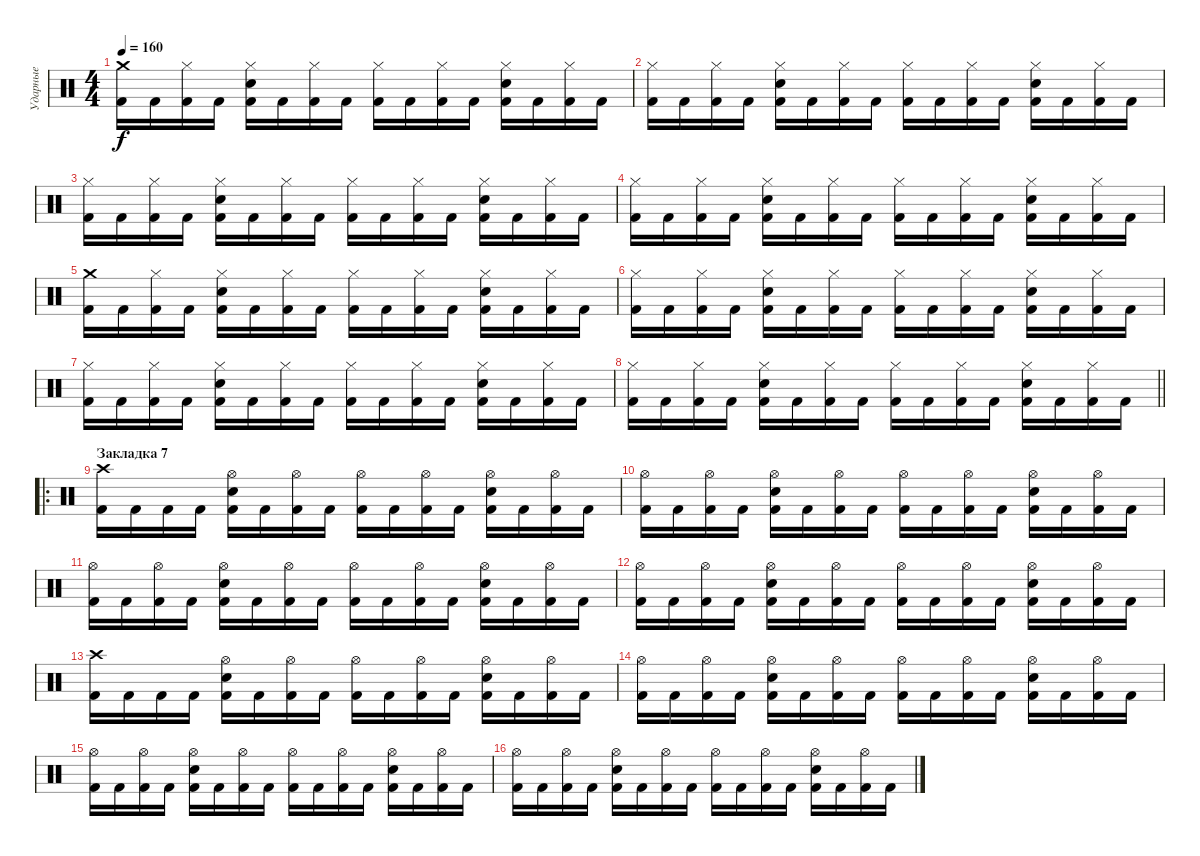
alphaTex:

\track ("Ударные" "Ударные") {instrument percussion}
\staff {score}
\articulation defaults
\ts (4 4)
\tempo 160
\clef neutral
\ks c
("Crash medium (hit)" "Kick (hit) 2").16{dy f} "Kick (hit) 2".16 ("Hi-Hat (closed)" "Kick (hit) 2").16 "Kick (hit) 2".16 ("Electric Snare (hit)" "Hi-Hat (closed)" "Kick (hit) 2").16 "Kick (hit) 2".16 ("Hi-Hat (closed)" "Kick (hit) 2").16 "Kick (hit) 2".16 ("Hi-Hat (closed)" "Kick (hit) 2").16 "Kick (hit) 2".16 ("Hi-Hat (closed)" "Kick (hit) 2").16 "Kick (hit) 2".16 ("Electric Snare (hit)" "Hi-Hat (closed)" "Kick (hit) 2").16 "Kick (hit) 2".16 ("Hi-Hat (closed)" "Kick (hit) 2").16 "Kick (hit) 2".16 |
("Hi-Hat (closed)" "Kick (hit) 2").16 "Kick (hit) 2".16 ("Hi-Hat (closed)" "Kick (hit) 2").16 "Kick (hit) 2".16 ("Electric Snare (hit)" "Hi-Hat (closed)" "Kick (hit) 2").16 "Kick (hit) 2".16 ("Hi-Hat (closed)" "Kick (hit) 2").16 "Kick (hit) 2".16 ("Hi-Hat (closed)" "Kick (hit) 2").16 "Kick (hit) 2".16 ("Hi-Hat (closed)" "Kick (hit) 2").16 "Kick (hit) 2".16 ("Electric Snare (hit)" "Hi-Hat (closed)" "Kick (hit) 2").16 "Kick (hit) 2".16 ("Hi-Hat (closed)" "Kick (hit) 2").16 "Kick (hit) 2".16 |
("Hi-Hat (closed)" "Kick (hit) 2").16 "Kick (hit) 2".16 ("Hi-Hat (closed)" "Kick (hit) 2").16 "Kick (hit) 2".16 ("Electric Snare (hit)" "Hi-Hat (closed)" "Kick (hit) 2").16 "Kick (hit) 2".16 ("Hi-Hat (closed)" "Kick (hit) 2").16 "Kick (hit) 2".16 ("Hi-Hat (closed)" "Kick (hit) 2").16 "Kick (hit) 2".16 ("Hi-Hat (closed)" "Kick (hit) 2").16 "Kick (hit) 2".16 ("Electric Snare (hit)" "Hi-Hat (closed)" "Kick (hit) 2").16 "Kick (hit) 2".16 ("Hi-Hat (closed)" "Kick (hit) 2").16 "Kick (hit) 2".16 |
("Hi-Hat (closed)" "Kick (hit) 2").16 "Kick (hit) 2".16 ("Hi-Hat (closed)" "Kick (hit) 2").16 "Kick (hit) 2".16 ("Electric Snare (hit)" "Hi-Hat (closed)" "Kick (hit) 2").16 "Kick (hit) 2".16 ("Hi-Hat (closed)" "Kick (hit) 2").16 "Kick (hit) 2".16 ("Hi-Hat (closed)" "Kick (hit) 2").16 "Kick (hit) 2".16 ("Hi-Hat (closed)" "Kick (hit) 2").16 "Kick (hit) 2".16 ("Electric Snare (hit)" "Hi-Hat (closed)" "Kick (hit) 2").16 "Kick (hit) 2".16 ("Hi-Hat (closed)" "Kick (hit) 2").16 "Kick (hit) 2".16 |
("Crash medium (hit)" "Kick (hit) 2").16 "Kick (hit) 2".16 ("Hi-Hat (closed)" "Kick (hit) 2").16 "Kick (hit) 2".16 ("Electric Snare (hit)" "Hi-Hat (closed)" "Kick (hit) 2").16 "Kick (hit) 2".16 ("Hi-Hat (closed)" "Kick (hit) 2").16 "Kick (hit) 2".16 ("Hi-Hat (closed)" "Kick (hit) 2").16 "Kick (hit) 2".16 ("Hi-Hat (closed)" "Kick (hit) 2").16 "Kick (hit) 2".16 ("Electric Snare (hit)" "Hi-Hat (closed)" "Kick (hit) 2").16 "Kick (hit) 2".16 ("Hi-Hat (closed)" "Kick (hit) 2").16 "Kick (hit) 2".16 |
("Hi-Hat (closed)" "Kick (hit) 2").16 "Kick (hit) 2".16 ("Hi-Hat (closed)" "Kick (hit) 2").16 "Kick (hit) 2".16 ("Electric Snare (hit)" "Hi-Hat (closed)" "Kick (hit) 2").16 "Kick (hit) 2".16 ("Hi-Hat (closed)" "Kick (hit) 2").16 "Kick (hit) 2".16 ("Hi-Hat (closed)" "Kick (hit) 2").16 "Kick (hit) 2".16 ("Hi-Hat (closed)" "Kick (hit) 2").16 "Kick (hit) 2".16 ("Electric Snare (hit)" "Hi-Hat (closed)" "Kick (hit) 2").16 "Kick (hit) 2".16 ("Hi-Hat (closed)" "Kick (hit) 2").16 "Kick (hit) 2".16 |
("Hi-Hat (closed)" "Kick (hit) 2").16 "Kick (hit) 2".16 ("Hi-Hat (closed)" "Kick (hit) 2").16 "Kick (hit) 2".16 ("Electric Snare (hit)" "Hi-Hat (closed)" "Kick (hit) 2").16 "Kick (hit) 2".16 ("Hi-Hat (closed)" "Kick (hit) 2").16 "Kick (hit) 2".16 ("Hi-Hat (closed)" "Kick (hit) 2").16 "Kick (hit) 2".16 ("Hi-Hat (closed)" "Kick (hit) 2").16 "Kick (hit) 2".16 ("Electric Snare (hit)" "Hi-Hat (closed)" "Kick (hit) 2").16 "Kick (hit) 2".16 ("Hi-Hat (closed)" "Kick (hit) 2").16 "Kick (hit) 2".16 |
\barLineRight lightlight
("Hi-Hat (closed)" "Kick (hit) 2").16 "Kick (hit) 2".16 ("Hi-Hat (closed)" "Kick (hit) 2").16 "Kick (hit) 2".16 ("Electric Snare (hit)" "Hi-Hat (closed)" "Kick (hit) 2").16 "Kick (hit) 2".16 ("Hi-Hat (closed)" "Kick (hit) 2").16 "Kick (hit) 2".16 ("Hi-Hat (closed)" "Kick (hit) 2").16 "Kick (hit) 2".16 ("Hi-Hat (closed)" "Kick (hit) 2").16 "Kick (hit) 2".16 ("Electric Snare (hit)" "Hi-Hat (closed)" "Kick (hit) 2").16 "Kick (hit) 2".16 ("Hi-Hat (closed)" "Kick (hit) 2").16 "Kick (hit) 2".16 |
\ro
\section ("" "Закладка 7")
("Crash high (hit)" "Kick (hit) 2").16 "Kick (hit) 2".16 "Kick (hit) 2".16 "Kick (hit) 2".16 ("Electric Snare (hit)" "Hi-Hat (open)" "Kick (hit) 2").16 "Kick (hit) 2".16 ("Hi-Hat (open)" "Kick (hit) 2").16 "Kick (hit) 2".16 ("Hi-Hat (open)" "Kick (hit) 2").16 "Kick (hit) 2".16 ("Hi-Hat (open)" "Kick (hit) 2").16 "Kick (hit) 2".16 ("Electric Snare (hit)" "Hi-Hat (open)" "Kick (hit) 2").16 "Kick (hit) 2".16 ("Hi-Hat (open)" "Kick (hit) 2").16 "Kick (hit) 2".16 |
("Hi-Hat (open)" "Kick (hit) 2").16 "Kick (hit) 2".16 ("Hi-Hat (open)" "Kick (hit) 2").16 "Kick (hit) 2".16 ("Electric Snare (hit)" "Hi-Hat (open)" "Kick (hit) 2").16 "Kick (hit) 2".16 ("Hi-Hat (open)" "Kick (hit) 2").16 "Kick (hit) 2".16 ("Hi-Hat (open)" "Kick (hit) 2").16 "Kick (hit) 2".16 ("Hi-Hat (open)" "Kick (hit) 2").16 "Kick (hit) 2".16 ("Electric Snare (hit)" "Hi-Hat (open)" "Kick (hit) 2").16 "Kick (hit) 2".16 ("Hi-Hat (open)" "Kick (hit) 2").16 "Kick (hit) 2".16 |
("Hi-Hat (open)" "Kick (hit) 2").16 "Kick (hit) 2".16 ("Hi-Hat (open)" "Kick (hit) 2").16 "Kick (hit) 2".16 ("Electric Snare (hit)" "Hi-Hat (open)" "Kick (hit) 2").16 "Kick (hit) 2".16 ("Hi-Hat (open)" "Kick (hit) 2").16 "Kick (hit) 2".16 ("Hi-Hat (open)" "Kick (hit) 2").16 "Kick (hit) 2".16 ("Hi-Hat (open)" "Kick (hit) 2").16 "Kick (hit) 2".16 ("Electric Snare (hit)" "Hi-Hat (open)" "Kick (hit) 2").16 "Kick (hit) 2".16 ("Hi-Hat (open)" "Kick (hit) 2").16 "Kick (hit) 2".16 |
("Hi-Hat (open)" "Kick (hit) 2").16 "Kick (hit) 2".16 ("Hi-Hat (open)" "Kick (hit) 2").16 "Kick (hit) 2".16 ("Electric Snare (hit)" "Hi-Hat (open)" "Kick (hit) 2").16 "Kick (hit) 2".16 ("Hi-Hat (open)" "Kick (hit) 2").16 "Kick (hit) 2".16 ("Hi-Hat (open)" "Kick (hit) 2").16 "Kick (hit) 2".16 ("Hi-Hat (open)" "Kick (hit) 2").16 "Kick (hit) 2".16 ("Electric Snare (hit)" "Hi-Hat (open)" "Kick (hit) 2").16 "Kick (hit) 2".16 ("Hi-Hat (open)" "Kick (hit) 2").16 "Kick (hit) 2".16 |
("Crash high (hit)" "Kick (hit) 2").16 "Kick (hit) 2".16 "Kick (hit) 2".16 "Kick (hit) 2".16 ("Electric Snare (hit)" "Hi-Hat (open)" "Kick (hit) 2").16 "Kick (hit) 2".16 ("Hi-Hat (open)" "Kick (hit) 2").16 "Kick (hit) 2".16 ("Hi-Hat (open)" "Kick (hit) 2").16 "Kick (hit) 2".16 ("Hi-Hat (open)" "Kick (hit) 2").16 "Kick (hit) 2".16 ("Electric Snare (hit)" "Hi-Hat (open)" "Kick (hit) 2").16 "Kick (hit) 2".16 ("Hi-Hat (open)" "Kick (hit) 2").16 "Kick (hit) 2".16 |
("Hi-Hat (open)" "Kick (hit) 2").16 "Kick (hit) 2".16 ("Hi-Hat (open)" "Kick (hit) 2").16 "Kick (hit) 2".16 ("Electric Snare (hit)" "Hi-Hat (open)" "Kick (hit) 2").16 "Kick (hit) 2".16 ("Hi-Hat (open)" "Kick (hit) 2").16 "Kick (hit) 2".16 ("Hi-Hat (open)" "Kick (hit) 2").16 "Kick (hit) 2".16 ("Hi-Hat (open)" "Kick (hit) 2").16 "Kick (hit) 2".16 ("Electric Snare (hit)" "Hi-Hat (open)" "Kick (hit) 2").16 "Kick (hit) 2".16 ("Hi-Hat (open)" "Kick (hit) 2").16 "Kick (hit) 2".16 |
("Hi-Hat (open)" "Kick (hit) 2").16 "Kick (hit) 2".16 ("Hi-Hat (open)" "Kick (hit) 2").16 "Kick (hit) 2".16 ("Electric Snare (hit)" "Hi-Hat (open)" "Kick (hit) 2").16 "Kick (hit) 2".16 ("Hi-Hat (open)" "Kick (hit) 2").16 "Kick (hit) 2".16 ("Hi-Hat (open)" "Kick (hit) 2").16 "Kick (hit) 2".16 ("Hi-Hat (open)" "Kick (hit) 2").16 "Kick (hit) 2".16 ("Electric Snare (hit)" "Hi-Hat (open)" "Kick (hit) 2").16 "Kick (hit) 2".16 ("Hi-Hat (open)" "Kick (hit) 2").16 "Kick (hit) 2".16 |
("Hi-Hat (open)" "Kick (hit) 2").16 "Kick (hit) 2".16 ("Hi-Hat (open)" "Kick (hit) 2").16 "Kick (hit) 2".16 ("Electric Snare (hit)" "Hi-Hat (open)" "Kick (hit) 2").16 "Kick (hit) 2".16 ("Hi-Hat (open)" "Kick (hit) 2").16 "Kick (hit) 2".16 ("Hi-Hat (open)" "Kick (hit) 2").16 "Kick (hit) 2".16 ("Hi-Hat (open)" "Kick (hit) 2").16 "Kick (hit) 2".16 ("Electric Snare (hit)" "Hi-Hat (open)" "Kick (hit) 2").16 "Kick (hit) 2".16 ("Hi-Hat (open)" "Kick (hit) 2").16 "Kick (hit) 2".16
